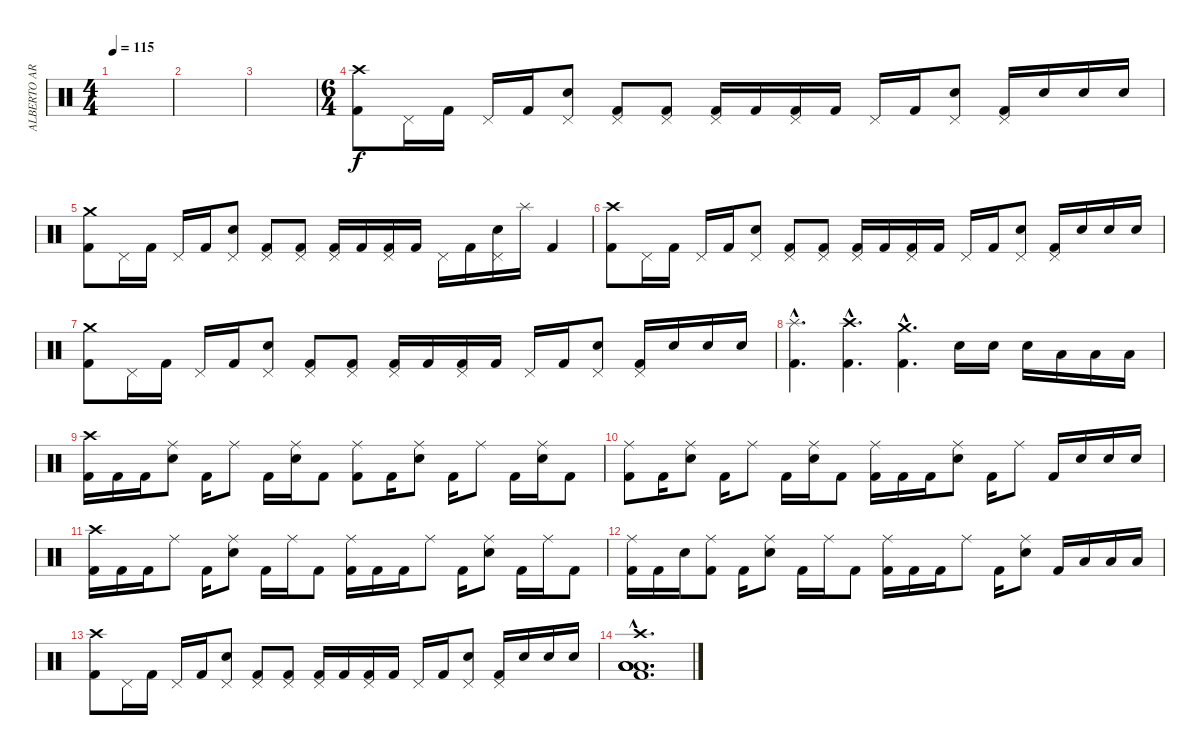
\track ("ALBERTO ARDINES" "ALBERTO AR") {instrument percussion}
\staff {score}
\articulation defaults
\ts (4 4)
\tempo 115
\clef neutral
\ks c
|
|
|
\ts (6 4)
("Crash high (hit)" "Kick (hit) 2").8 "Pedal Hi-Hat (hit)".16 "Kick (hit) 2".16 "Pedal Hi-Hat (hit)".16 "Kick (hit) 2".16 ("Pedal Hi-Hat (hit)" "Electric Snare (hit)").8 ("Pedal Hi-Hat (hit)" "Kick (hit) 2").8 ("Pedal Hi-Hat (hit)" "Kick (hit) 2").8 ("Pedal Hi-Hat (hit)" "Kick (hit) 2").16 "Kick (hit) 2".16 ("Pedal Hi-Hat (hit)" "Kick (hit) 2").16 "Kick (hit) 2".16 "Pedal Hi-Hat (hit)".16 "Kick (hit) 2".16 ("Pedal Hi-Hat (hit)" "Electric Snare (hit)").8 ("Pedal Hi-Hat (hit)" "Kick (hit) 2").16 "Electric Snare (hit)".16 "Electric Snare (hit)".16 "Electric Snare (hit)".16 |
("Crash medium (hit)" "Kick (hit) 2").8 "Pedal Hi-Hat (hit)".16 "Kick (hit) 2".16 "Pedal Hi-Hat (hit)".16 "Kick (hit) 2".16 ("Pedal Hi-Hat (hit)" "Electric Snare (hit)").8 ("Pedal Hi-Hat (hit)" "Kick (hit) 2").8 ("Pedal Hi-Hat (hit)" "Kick (hit) 2").8 ("Pedal Hi-Hat (hit)" "Kick (hit) 2").16 "Kick (hit) 2".16 ("Pedal Hi-Hat (hit)" "Kick (hit) 2").16 "Kick (hit) 2".16 "Pedal Hi-Hat (hit)".16 "Kick (hit) 2".16 ("Pedal Hi-Hat (hit)" "Electric Snare (hit)").16 "Splash (hit)".16 "Kick (hit) 2".4 |
("Crash high (hit)" "Kick (hit) 2").8 "Pedal Hi-Hat (hit)".16 "Kick (hit) 2".16 "Pedal Hi-Hat (hit)".16 "Kick (hit) 2".16 ("Pedal Hi-Hat (hit)" "Electric Snare (hit)").8 ("Pedal Hi-Hat (hit)" "Kick (hit) 2").8 ("Pedal Hi-Hat (hit)" "Kick (hit) 2").8 ("Pedal Hi-Hat (hit)" "Kick (hit) 2").16 "Kick (hit) 2".16 ("Pedal Hi-Hat (hit)" "Kick (hit) 2").16 "Kick (hit) 2".16 "Pedal Hi-Hat (hit)".16 "Kick (hit) 2".16 ("Pedal Hi-Hat (hit)" "Electric Snare (hit)").8 ("Pedal Hi-Hat (hit)" "Kick (hit) 2").16 "Electric Snare (hit)".16 "Electric Snare (hit)".16 "Electric Snare (hit)".16 |
("Crash medium (hit)" "Kick (hit) 2").8 "Pedal Hi-Hat (hit)".16 "Kick (hit) 2".16 "Pedal Hi-Hat (hit)".16 "Kick (hit) 2".16 ("Pedal Hi-Hat (hit)" "Electric Snare (hit)").8 ("Pedal Hi-Hat (hit)" "Kick (hit) 2").8 ("Pedal Hi-Hat (hit)" "Kick (hit) 2").8 ("Pedal Hi-Hat (hit)" "Kick (hit) 2").16 "Kick (hit) 2".16 ("Pedal Hi-Hat (hit)" "Kick (hit) 2").16 "Kick (hit) 2".16 "Pedal Hi-Hat (hit)".16 "Kick (hit) 2".16 ("Pedal Hi-Hat (hit)" "Electric Snare (hit)").8 ("Pedal Hi-Hat (hit)" "Kick (hit) 2").16 "Electric Snare (hit)".16 "Electric Snare (hit)".16 "Electric Snare (hit)".16 |
("Splash (hit)"{hac} "Kick (hit) 2"{hac}).4{d} ("Crash high (hit)"{hac} "Kick (hit) 2"{hac}).4{d} ("Crash medium (hit)"{hac} "Kick (hit) 2"{hac}).4{d} "Electric Snare (hit)".16 "Electric Snare (hit)".16 "Electric Snare (hit)".16 "Low Tom (hit)".16 "Low Tom (hit)".16 "Low Tom (hit)".16 |
("Crash high (hit)" "Kick (hit) 2").16 "Kick (hit) 2".16 "Kick (hit) 2".16 ("Ride (middle)" "Electric Snare (hit)").8 "Kick (hit) 2".16 "Ride (middle)".8 "Kick (hit) 2".16 ("Ride (middle)" "Electric Snare (hit)").16 "Kick (hit) 2".8 ("Ride (middle)" "Kick (hit) 2").8 "Kick (hit) 2".16 ("Ride (middle)" "Electric Snare (hit)").8 "Kick (hit) 2".16 "Ride (middle)".8 "Kick (hit) 2".16 ("Ride (middle)" "Electric Snare (hit)").16 "Kick (hit) 2".8 |
("Ride (middle)" "Kick (hit) 2").8 "Kick (hit) 2".16 ("Ride (middle)" "Electric Snare (hit)").8 "Kick (hit) 2".16 "Ride (middle)".8 "Kick (hit) 2".16 ("Ride (middle)" "Electric Snare (hit)").16 "Kick (hit) 2".8 ("Ride (middle)" "Kick (hit) 2").16 "Kick (hit) 2".16 "Kick (hit) 2".16 ("Ride (middle)" "Electric Snare (hit)").8 "Kick (hit) 2".16 "Ride (middle)".8 "Kick (hit) 2".16 "Electric Snare (hit)".16 "Electric Snare (hit)".16 "Electric Snare (hit)".16 |
("Crash high (hit)" "Kick (hit) 2").16 "Kick (hit) 2".16 "Kick (hit) 2".16 "Ride (middle)".8 "Kick (hit) 2".16 ("Ride (middle)" "Electric Snare (hit)").8 "Kick (hit) 2".16 "Ride (middle)".16 "Kick (hit) 2".8 ("Ride (middle)" "Kick (hit) 2").16 "Kick (hit) 2".16 "Kick (hit) 2".16 "Ride (middle)".8 "Kick (hit) 2".16 ("Ride (middle)" "Electric Snare (hit)").8 "Kick (hit) 2".16 "Ride (middle)".16 "Kick (hit) 2".8 |
("Ride (middle)" "Kick (hit) 2").16 "Kick (hit) 2".16 "Electric Snare (hit)".16 ("Ride (middle)" "Kick (hit) 2").8 "Kick (hit) 2".16 ("Ride (middle)" "Electric Snare (hit)").8 "Kick (hit) 2".16 "Ride (middle)".16 "Kick (hit) 2".8 ("Ride (middle)" "Kick (hit) 2").16 "Kick (hit) 2".16 "Kick (hit) 2".16 "Ride (middle)".8 "Kick (hit) 2".16 ("Ride (middle)" "Electric Snare (hit)").8 "Kick (hit) 2".16 "Low Tom (hit)".16 "Low Tom (hit)".16 "Low Tom (hit)".16 |
("Crash high (hit)" "Kick (hit) 2").8 "Pedal Hi-Hat (hit)".16 "Kick (hit) 2".16 "Pedal Hi-Hat (hit)".16 "Kick (hit) 2".16 ("Pedal Hi-Hat (hit)" "Electric Snare (hit)").8 ("Pedal Hi-Hat (hit)" "Kick (hit) 2").8 ("Pedal Hi-Hat (hit)" "Kick (hit) 2").8 ("Pedal Hi-Hat (hit)" "Kick (hit) 2").16 "Kick (hit) 2".16 ("Pedal Hi-Hat (hit)" "Kick (hit) 2").16 "Kick (hit) 2".16 "Pedal Hi-Hat (hit)".16 "Kick (hit) 2".16 ("Pedal Hi-Hat (hit)" "Electric Snare (hit)").8 ("Pedal Hi-Hat (hit)" "Kick (hit) 2").16 "Electric Snare (hit)".16 "Electric Snare (hit)".16 "Electric Snare (hit)".16 |
("Crash high (hit)"{hac} "Low Tom (hit)"{hac} "Low Tom (hit)"{hac} "Low Floor Tom (hit)"{hac} "Low Floor Tom (hit)"{hac} "Kick (hit) 2"{hac}).1{d}
